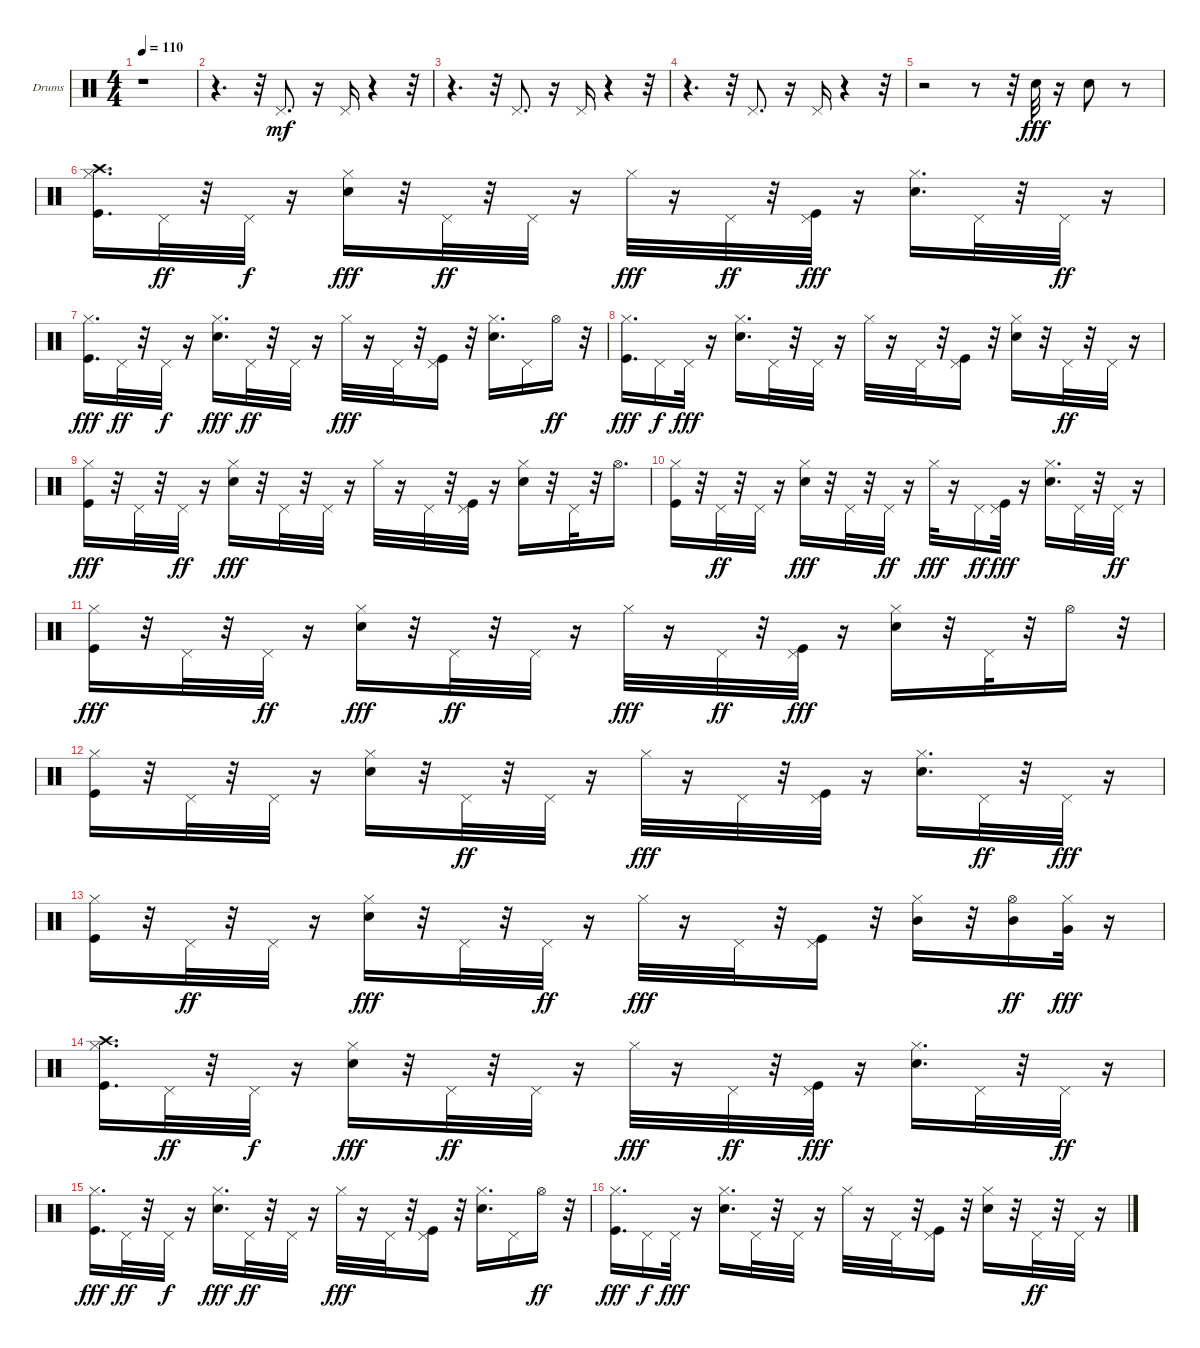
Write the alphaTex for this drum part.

\defaultSystemsLayout 4
\bracketExtendMode groupsimilarinstruments
\firstSystemTrackNameOrientation horizontal
\otherSystemsTrackNameOrientation horizontal
\track ("Drumkit" "Drums") {instrument percussion}
\staff {score}
\articulation defaults
\ts (4 4)
\tempo 110
\clef neutral
\ks c
r.1{dy mf} |
r.4{d} r.32 "Pedal Hi-Hat (hit)".8{d} r.16 "Pedal Hi-Hat (hit)".16 r.4 r.32 |
r.4{d} r.32 "Pedal Hi-Hat (hit)".8{d} r.16 "Pedal Hi-Hat (hit)".16 r.4 r.32 |
r.4{d} r.32 "Pedal Hi-Hat (hit)".8{d} r.16 "Pedal Hi-Hat (hit)".16 r.4 r.32 |
r.2 r.8 r.32 "Snare (hit) 2".32{dy fff} r.16 "Snare (hit) 2".8 r.8 |
("Kick (hit)" "Crash high (hit)" "Hi-Hat (closed)").16{d} "Pedal Hi-Hat (hit)".32{dy ff} r.32 "Pedal Hi-Hat (hit)".32{dy f} r.16 ("Snare (hit) 2" "Hi-Hat (closed)").16{dy fff} r.32 "Pedal Hi-Hat (hit)".32{dy ff} r.32 "Pedal Hi-Hat (hit)".32 r.16 "Hi-Hat (closed)".32{dy fff} r.16 "Pedal Hi-Hat (hit)".32{dy ff} r.32 ("Kick (hit)" "Pedal Hi-Hat (hit)").32{dy fff} r.16 ("Snare (hit) 2" "Hi-Hat (closed)").16{d} "Pedal Hi-Hat (hit)".32 r.32 "Pedal Hi-Hat (hit)".32{dy ff} r.16 |
("Kick (hit)" "Hi-Hat (closed)").16{d dy fff} "Pedal Hi-Hat (hit)".32{dy ff} r.32 "Pedal Hi-Hat (hit)".32{dy f} r.16 ("Snare (hit) 2" "Hi-Hat (closed)").16{d dy fff} "Pedal Hi-Hat (hit)".32{dy ff} r.32 "Pedal Hi-Hat (hit)".32 r.16 "Hi-Hat (closed)".32{dy fff} r.16 "Pedal Hi-Hat (hit)".32 r.32 ("Kick (hit)" "Pedal Hi-Hat (hit)").16 r.32 ("Snare (hit) 2" "Hi-Hat (closed)").16{d} "Pedal Hi-Hat (hit)".16 "Hi-Hat (open)".16{dy ff} r.32 |
("Kick (hit)" "Hi-Hat (closed)").16{d dy fff} "Pedal Hi-Hat (hit)".16{dy f} "Pedal Hi-Hat (hit)".32{dy fff} r.16 ("Snare (hit) 2" "Hi-Hat (closed)").16{d} "Pedal Hi-Hat (hit)".32 r.32 "Pedal Hi-Hat (hit)".32 r.16 "Hi-Hat (closed)".32 r.16 "Pedal Hi-Hat (hit)".32 r.32 ("Kick (hit)" "Pedal Hi-Hat (hit)").16 r.32 ("Snare (hit) 2" "Hi-Hat (closed)").16 r.32 "Pedal Hi-Hat (hit)".32{dy ff} r.32 "Pedal Hi-Hat (hit)".32 r.16 |
("Kick (hit)" "Hi-Hat (closed)").16{dy fff} r.32 "Pedal Hi-Hat (hit)".32 r.32 "Pedal Hi-Hat (hit)".32{dy ff} r.16 ("Snare (hit) 2" "Hi-Hat (closed)").16{dy fff} r.32 "Pedal Hi-Hat (hit)".32 r.32 "Pedal Hi-Hat (hit)".32 r.16 "Hi-Hat (closed)".32 r.16 "Pedal Hi-Hat (hit)".32 r.32 ("Kick (hit)" "Pedal Hi-Hat (hit)").32 r.16 ("Snare (hit) 2" "Hi-Hat (closed)").16 r.32 "Pedal Hi-Hat (hit)".32 r.32 "Hi-Hat (open)".16{d} |
("Kick (hit)" "Hi-Hat (closed)").16 r.32 "Pedal Hi-Hat (hit)".32{dy ff} r.32 "Pedal Hi-Hat (hit)".32 r.16 ("Snare (hit) 2" "Hi-Hat (closed)").16{dy fff} r.32 "Pedal Hi-Hat (hit)".32 r.32 "Pedal Hi-Hat (hit)".32{dy ff} r.16 "Hi-Hat (closed)".32{dy fff} r.16 "Pedal Hi-Hat (hit)".16{dy ff} ("Kick (hit)" "Pedal Hi-Hat (hit)").32{dy fff} r.16 ("Snare (hit) 2" "Hi-Hat (closed)").16{d} "Pedal Hi-Hat (hit)".32 r.32 "Pedal Hi-Hat (hit)".32{dy ff} r.16 |
("Kick (hit)" "Hi-Hat (closed)").16{dy fff} r.32 "Pedal Hi-Hat (hit)".32 r.32 "Pedal Hi-Hat (hit)".32{dy ff} r.16 ("Snare (hit) 2" "Hi-Hat (closed)").16{dy fff} r.32 "Pedal Hi-Hat (hit)".32{dy ff} r.32 "Pedal Hi-Hat (hit)".32 r.16 "Hi-Hat (closed)".32{dy fff} r.16 "Pedal Hi-Hat (hit)".32{dy ff} r.32 ("Kick (hit)" "Pedal Hi-Hat (hit)").32{dy fff} r.16 ("Snare (hit) 2" "Hi-Hat (closed)").16 r.32 "Pedal Hi-Hat (hit)".32 r.32 "Hi-Hat (open)".16 r.32 |
("Kick (hit)" "Hi-Hat (closed)").16 r.32 "Pedal Hi-Hat (hit)".32 r.32 "Pedal Hi-Hat (hit)".32 r.16 ("Snare (hit) 2" "Hi-Hat (closed)").16 r.32 "Pedal Hi-Hat (hit)".32{dy ff} r.32 "Pedal Hi-Hat (hit)".32 r.16 "Hi-Hat (closed)".32{dy fff} r.16 "Pedal Hi-Hat (hit)".32 r.32 ("Kick (hit)" "Pedal Hi-Hat (hit)").32 r.16 ("Snare (hit) 2" "Hi-Hat (closed)").16{d} "Pedal Hi-Hat (hit)".32{dy ff} r.32 "Pedal Hi-Hat (hit)".32{dy fff} r.16 |
("Kick (hit)" "Hi-Hat (closed)").16 r.32 "Pedal Hi-Hat (hit)".32{dy ff} r.32 "Pedal Hi-Hat (hit)".32 r.16 ("Snare (hit) 2" "Hi-Hat (closed)").16{dy fff} r.32 "Pedal Hi-Hat (hit)".32 r.32 "Pedal Hi-Hat (hit)".32{dy ff} r.16 "Hi-Hat (closed)".32{dy fff} r.16 "Pedal Hi-Hat (hit)".32 r.32 ("Kick (hit)" "Pedal Hi-Hat (hit)").16 r.32 ("Mid Tom (hit)" "Hi-Hat (closed)").16 r.32 ("Mid Tom (hit)" "Hi-Hat (open)").16{dy ff} ("Very Low Tom (hit)" "Hi-Hat (closed)").32{dy fff} r.16 |
("Kick (hit)" "Crash high (hit)" "Hi-Hat (closed)").16{d} "Pedal Hi-Hat (hit)".32{dy ff} r.32 "Pedal Hi-Hat (hit)".32{dy f} r.16 ("Snare (hit) 2" "Hi-Hat (closed)").16{dy fff} r.32 "Pedal Hi-Hat (hit)".32{dy ff} r.32 "Pedal Hi-Hat (hit)".32 r.16 "Hi-Hat (closed)".32{dy fff} r.16 "Pedal Hi-Hat (hit)".32{dy ff} r.32 ("Kick (hit)" "Pedal Hi-Hat (hit)").32{dy fff} r.16 ("Snare (hit) 2" "Hi-Hat (closed)").16{d} "Pedal Hi-Hat (hit)".32 r.32 "Pedal Hi-Hat (hit)".32{dy ff} r.16 |
("Kick (hit)" "Hi-Hat (closed)").16{d dy fff} "Pedal Hi-Hat (hit)".32{dy ff} r.32 "Pedal Hi-Hat (hit)".32{dy f} r.16 ("Snare (hit) 2" "Hi-Hat (closed)").16{d dy fff} "Pedal Hi-Hat (hit)".32{dy ff} r.32 "Pedal Hi-Hat (hit)".32 r.16 "Hi-Hat (closed)".32{dy fff} r.16 "Pedal Hi-Hat (hit)".32 r.32 ("Kick (hit)" "Pedal Hi-Hat (hit)").16 r.32 ("Snare (hit) 2" "Hi-Hat (closed)").16{d} "Pedal Hi-Hat (hit)".16 "Hi-Hat (open)".16{dy ff} r.32 |
("Kick (hit)" "Hi-Hat (closed)").16{d dy fff} "Pedal Hi-Hat (hit)".16{dy f} "Pedal Hi-Hat (hit)".32{dy fff} r.16 ("Snare (hit) 2" "Hi-Hat (closed)").16{d} "Pedal Hi-Hat (hit)".32 r.32 "Pedal Hi-Hat (hit)".32 r.16 "Hi-Hat (closed)".32 r.16 "Pedal Hi-Hat (hit)".32 r.32 ("Kick (hit)" "Pedal Hi-Hat (hit)").16 r.32 ("Snare (hit) 2" "Hi-Hat (closed)").16 r.32 "Pedal Hi-Hat (hit)".32{dy ff} r.32 "Pedal Hi-Hat (hit)".32 r.16
